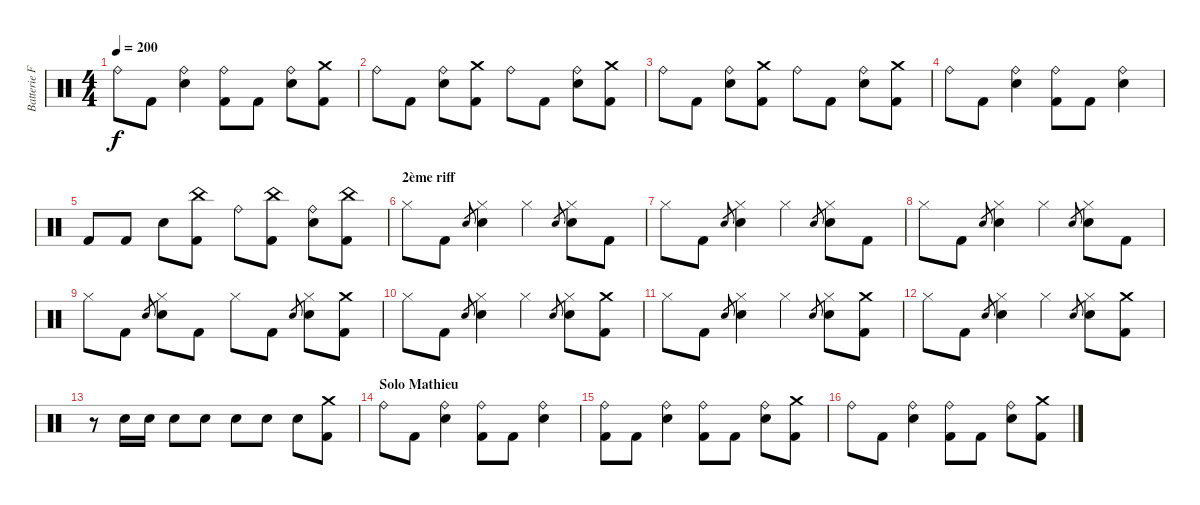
\track ("Batterie Franck" "Batterie F") {instrument percussion}
\staff {score}
\articulation defaults
\ts (4 4)
\tempo 200
\clef neutral
\ks c "Ride (bell)".8{dy f} "Kick (hit) 2".8
("Ride (bell)" "Snare (hit) 2").4 ("Ride (bell)" "Kick (hit) 2").8 "Kick (hit) 2".8 ("Ride (bell)" "Snare (hit) 2").8 ("Crash medium (hit)" "Kick (hit) 2").8 |
"Ride (bell)".8 "Kick (hit) 2".8 ("Ride (bell)" "Snare (hit) 2").8 ("Crash medium (hit)" "Kick (hit) 2").8 "Ride (bell)".8 "Kick (hit) 2".8 ("Ride (bell)" "Snare (hit) 2").8 ("Crash medium (hit)" "Kick (hit) 2").8 |
"Ride (bell)".8 "Kick (hit) 2".8 ("Ride (bell)" "Snare (hit) 2").8 ("Crash medium (hit)" "Kick (hit) 2").8 "Ride (bell)".8 "Kick (hit) 2".8 ("Ride (bell)" "Snare (hit) 2").8 ("Crash medium (hit)" "Kick (hit) 2").8 |
"Ride (bell)".8 "Kick (hit) 2".8 ("Ride (bell)" "Snare (hit) 2").4 ("Ride (bell)" "Kick (hit) 2").8 "Kick (hit) 2".8 ("Ride (bell)" "Snare (hit) 2").4 |
"Kick (hit) 2".8 "Kick (hit) 2".8 "Snare (hit) 2".8 ("China (hit)" "Kick (hit) 2").8 "Ride (bell)".8 ("China (hit)" "Kick (hit) 2").8 ("Ride (bell)" "Snare (hit) 2").8 ("China (hit)" "Kick (hit) 2").8 |
\section ("" "2ème riff")
"Hi-Hat (closed)".8 "Kick (hit) 2".8 "Snare (hit) 2".8{gr} ("Hi-Hat (closed)" "Snare (hit) 2").4 "Hi-Hat (closed)".4 "Snare (hit) 2".8{gr} ("Hi-Hat (closed)" "Snare (hit) 2").8 "Kick (hit) 2".8 |
"Hi-Hat (closed)".8 "Kick (hit) 2".8 "Snare (hit) 2".8{gr} ("Hi-Hat (closed)" "Snare (hit) 2").4 "Hi-Hat (closed)".4 "Snare (hit) 2".8{gr} ("Hi-Hat (closed)" "Snare (hit) 2").8 "Kick (hit) 2".8 |
"Hi-Hat (closed)".8 "Kick (hit) 2".8 "Snare (hit) 2".8{gr} ("Hi-Hat (closed)" "Snare (hit) 2").4 "Hi-Hat (closed)".4 "Snare (hit) 2".8{gr} ("Hi-Hat (closed)" "Snare (hit) 2").8 "Kick (hit) 2".8 |
"Hi-Hat (closed)".8 "Kick (hit) 2".8 "Snare (hit) 2".8{gr} ("Hi-Hat (closed)" "Snare (hit) 2").8 "Kick (hit) 2".8 "Hi-Hat (closed)".8 "Kick (hit) 2".8 "Snare (hit) 2".8{gr} ("Hi-Hat (closed)" "Snare (hit) 2").8 ("Crash medium (hit)" "Kick (hit) 2").8 |
"Hi-Hat (closed)".8 "Kick (hit) 2".8 "Snare (hit) 2".8{gr} ("Hi-Hat (closed)" "Snare (hit) 2").4 "Hi-Hat (closed)".4 "Snare (hit) 2".8{gr} ("Hi-Hat (closed)" "Snare (hit) 2").8 ("Crash medium (hit)" "Kick (hit) 2").8 |
"Hi-Hat (closed)".8 "Kick (hit) 2".8 "Snare (hit) 2".8{gr} ("Hi-Hat (closed)" "Snare (hit) 2").4 "Hi-Hat (closed)".4 "Snare (hit) 2".8{gr} ("Hi-Hat (closed)" "Snare (hit) 2").8 ("Crash medium (hit)" "Kick (hit) 2").8 |
"Hi-Hat (closed)".8 "Kick (hit) 2".8 "Snare (hit) 2".8{gr} ("Hi-Hat (closed)" "Snare (hit) 2").4 "Hi-Hat (closed)".4 "Snare (hit) 2".8{gr} ("Hi-Hat (closed)" "Snare (hit) 2").8 ("Crash medium (hit)" "Kick (hit) 2").8 |
r.8 "Snare (hit) 2".16 "Snare (hit) 2".16 "Snare (hit) 2".8 "Snare (hit) 2".8 "Snare (hit) 2".8 "Snare (hit) 2".8 "Snare (hit) 2".8 ("Crash medium (hit)" "Kick (hit) 2").8 |
\section ("" "Solo Mathieu")
"Ride (bell)".8 "Kick (hit) 2".8 ("Ride (bell)" "Snare (hit) 2").4 ("Ride (bell)" "Kick (hit) 2").8 "Kick (hit) 2".8 ("Ride (bell)" "Snare (hit) 2").4 |
("Ride (bell)" "Kick (hit) 2").8 "Kick (hit) 2".8 ("Ride (bell)" "Snare (hit) 2").4 ("Ride (bell)" "Kick (hit) 2").8 "Kick (hit) 2".8 ("Ride (bell)" "Snare (hit) 2").8 ("Crash medium (hit)" "Kick (hit) 2").8 |
"Ride (bell)".8 "Kick (hit) 2".8 ("Ride (bell)" "Snare (hit) 2").4 ("Ride (bell)" "Kick (hit) 2").8 "Kick (hit) 2".8 ("Ride (bell)" "Snare (hit) 2").8 ("Crash medium (hit)" "Kick (hit) 2").8
